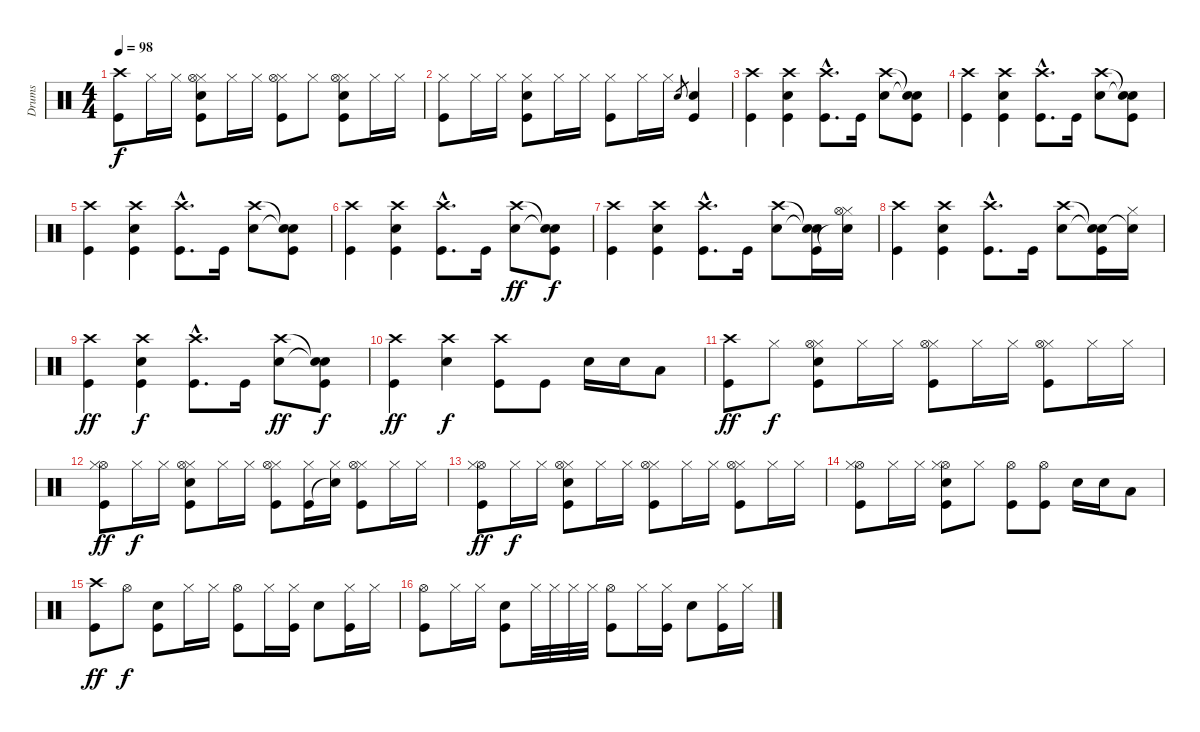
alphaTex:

\track ("Drums" "Drums") {instrument percussion}
\staff {score}
\articulation defaults
\ts (4 4)
\tempo 98
\clef neutral
\ks c
("Crash high (hit)" "Kick (hit)").8{dy f} "Hi-Hat (closed)".16 "Hi-Hat (closed)".16 ("Hi-Hat (closed)" "Electric Snare (hit)" "Kick (hit)" "Hi-Hat (open)").8 "Hi-Hat (closed)".16 "Hi-Hat (closed)".16 ("Hi-Hat (closed)" "Kick (hit)" "Hi-Hat (open)").8 "Hi-Hat (closed)".8 ("Hi-Hat (closed)" "Kick (hit)" "Electric Snare (hit)" "Hi-Hat (open)").8 "Hi-Hat (closed)".16 "Hi-Hat (closed)".16 |
("Hi-Hat (closed)" "Kick (hit)").8 "Hi-Hat (closed)".16 "Hi-Hat (closed)".16 ("Hi-Hat (closed)" "Electric Snare (hit)" "Kick (hit)").8 "Hi-Hat (closed)".16 "Hi-Hat (closed)".16 ("Hi-Hat (closed)" "Kick (hit)").8 "Hi-Hat (closed)".16 "Hi-Hat (closed)".16 "Electric Snare (hit)".8{gr} ("Electric Snare (hit)" "Kick (hit)").4 |
("Crash high (hit)" "Kick (hit)").4 ("Crash high (hit)" "Electric Snare (hit)" "Kick (hit)").4 ("Crash high (hit)"{hac} "Kick (hit)"{hac}).8{d} "Kick (hit)".16 ("Crash high (hit)" "Electric Snare (hit)").8 ("Snare (hit)"{t} "Snare (hit)"{t} "Kick (hit)").8 |
("Crash high (hit)" "Kick (hit)").4 ("Crash high (hit)" "Electric Snare (hit)" "Kick (hit)").4 ("Crash high (hit)"{hac} "Kick (hit)"{hac}).8{d} "Kick (hit)".16 ("Crash high (hit)" "Electric Snare (hit)").8 ("Snare (hit)"{t} "Snare (hit)"{t} "Kick (hit)").8 |
("Crash high (hit)" "Kick (hit)").4 ("Crash high (hit)" "Electric Snare (hit)" "Kick (hit)").4 ("Crash high (hit)"{hac} "Kick (hit)"{hac}).8{d} "Kick (hit)".16 ("Crash high (hit)" "Electric Snare (hit)").8 ("Snare (hit)"{t} "Snare (hit)"{t} "Kick (hit)").8 |
("Crash high (hit)" "Kick (hit)").4 ("Crash high (hit)" "Electric Snare (hit)" "Kick (hit)").4 ("Crash high (hit)"{hac} "Kick (hit)"{hac}).8{d} "Kick (hit)".16 ("Crash high (hit)" "Electric Snare (hit)").8{dy ff} ("Snare (hit)"{t} "Snare (hit)"{t} "Kick (hit)").8{dy f} |
("Crash high (hit)" "Kick (hit)").4 ("Crash high (hit)" "Electric Snare (hit)" "Kick (hit)").4 ("Crash high (hit)"{hac} "Kick (hit)"{hac}).8{d} "Kick (hit)".16 ("Crash high (hit)" "Electric Snare (hit)").8 ("Snare (hit)"{t} "Snare (hit)"{t} "Kick (hit)").16 ("Hi-Hat (closed)" "Hi-Hat (open)" "Snare (hit)"{t}).16 |
("Crash high (hit)" "Kick (hit)").4 ("Crash high (hit)" "Electric Snare (hit)" "Kick (hit)").4 ("Crash high (hit)"{hac} "Kick (hit)"{hac}).8{d} "Kick (hit)".16 ("Crash high (hit)" "Electric Snare (hit)").8 ("Snare (hit)"{t} "Snare (hit)"{t} "Kick (hit)").16 ("Hi-Hat (closed)" "Snare (hit)"{t}).16 |
("Crash high (hit)" "Kick (hit)").4{dy ff} ("Crash high (hit)" "Electric Snare (hit)" "Kick (hit)").4{dy f} ("Crash high (hit)"{hac} "Kick (hit)"{hac}).8{d} "Kick (hit)".16 ("Crash high (hit)" "Electric Snare (hit)").8{dy ff} ("Snare (hit)"{t} "Snare (hit)"{t} "Kick (hit)").8{dy f} |
("Crash high (hit)" "Kick (hit)").4{dy ff} ("Crash high (hit)" "Electric Snare (hit)").4{dy f} ("Crash high (hit)" "Kick (hit)").8 "Kick (hit)".8 "Electric Snare (hit)".16 "Electric Snare (hit)".16 "Low Tom (hit)".8 |
("Crash high (hit)" "Kick (hit)").8{dy ff} "Hi-Hat (closed)".8{dy f} ("Hi-Hat (closed)" "Kick (hit)" "Hi-Hat (open)" "Electric Snare (hit)").8 "Hi-Hat (closed)".16 "Hi-Hat (closed)".16 ("Hi-Hat (closed)" "Kick (hit)" "Hi-Hat (open)").8 "Hi-Hat (closed)".16 "Hi-Hat (closed)".16 ("Hi-Hat (closed)" "Kick (hit)" "Hi-Hat (open)").8 "Hi-Hat (closed)".16 "Hi-Hat (closed)".16 |
("Hi-Hat (open)" "Hi-Hat (closed)" "Kick (hit)").8{dy ff} "Hi-Hat (closed)".16{dy f} "Hi-Hat (closed)".16 ("Hi-Hat (closed)" "Kick (hit)" "Hi-Hat (open)" "Electric Snare (hit)").8 "Hi-Hat (closed)".16 "Hi-Hat (closed)".16 ("Hi-Hat (closed)" "Kick (hit)" "Hi-Hat (open)").8 ("Hi-Hat (closed)" "Kick (hit)").16 ("Hi-Hat (closed)" "Snare (hit)"{t}).16 ("Hi-Hat (closed)" "Kick (hit)" "Hi-Hat (open)").8 "Hi-Hat (closed)".16 "Hi-Hat (closed)".16 |
("Hi-Hat (open)" "Hi-Hat (closed)" "Kick (hit)").8{dy ff} "Hi-Hat (closed)".16{dy f} "Hi-Hat (closed)".16 ("Hi-Hat (closed)" "Kick (hit)" "Hi-Hat (open)" "Electric Snare (hit)").8 "Hi-Hat (closed)".16 "Hi-Hat (closed)".16 ("Hi-Hat (closed)" "Kick (hit)" "Hi-Hat (open)").8 "Hi-Hat (closed)".16 "Hi-Hat (closed)".16 ("Hi-Hat (closed)" "Kick (hit)" "Hi-Hat (open)").8 "Hi-Hat (closed)".16 "Hi-Hat (closed)".16 |
("Hi-Hat (open)" "Hi-Hat (closed)" "Kick (hit)").8 "Hi-Hat (closed)".16 "Hi-Hat (closed)".16 ("Hi-Hat (open)" "Hi-Hat (closed)" "Kick (hit)" "Electric Snare (hit)").8 "Hi-Hat (closed)".8 ("Hi-Hat (open)" "Kick (hit)").8 ("Hi-Hat (open)" "Kick (hit)").8 "Electric Snare (hit)".16 "Electric Snare (hit)".16 "Low Tom (hit)".8 |
("Crash high (hit)" "Kick (hit)").8{dy ff} "Hi-Hat (open)".8{dy f} ("Kick (hit)" "Electric Snare (hit)").8 "Hi-Hat (closed)".16 "Hi-Hat (closed)".16 ("Hi-Hat (open)" "Kick (hit)").8 "Hi-Hat (closed)".16 ("Hi-Hat (closed)" "Kick (hit)").16 "Electric Snare (hit)".8 ("Hi-Hat (closed)" "Kick (hit)").16 "Hi-Hat (closed)".16 |
("Hi-Hat (open)" "Kick (hit)").8 "Hi-Hat (closed)".16 "Hi-Hat (closed)".16 ("Kick (hit)" "Electric Snare (hit)").8 "Hi-Hat (closed)".32 "Hi-Hat (closed)".32 "Hi-Hat (closed)".32 "Hi-Hat (closed)".32 ("Hi-Hat (open)" "Kick (hit)").8 "Hi-Hat (closed)".16 ("Hi-Hat (closed)" "Kick (hit)").16 "Electric Snare (hit)".8 ("Hi-Hat (closed)" "Kick (hit)").16 "Hi-Hat (closed)".16
